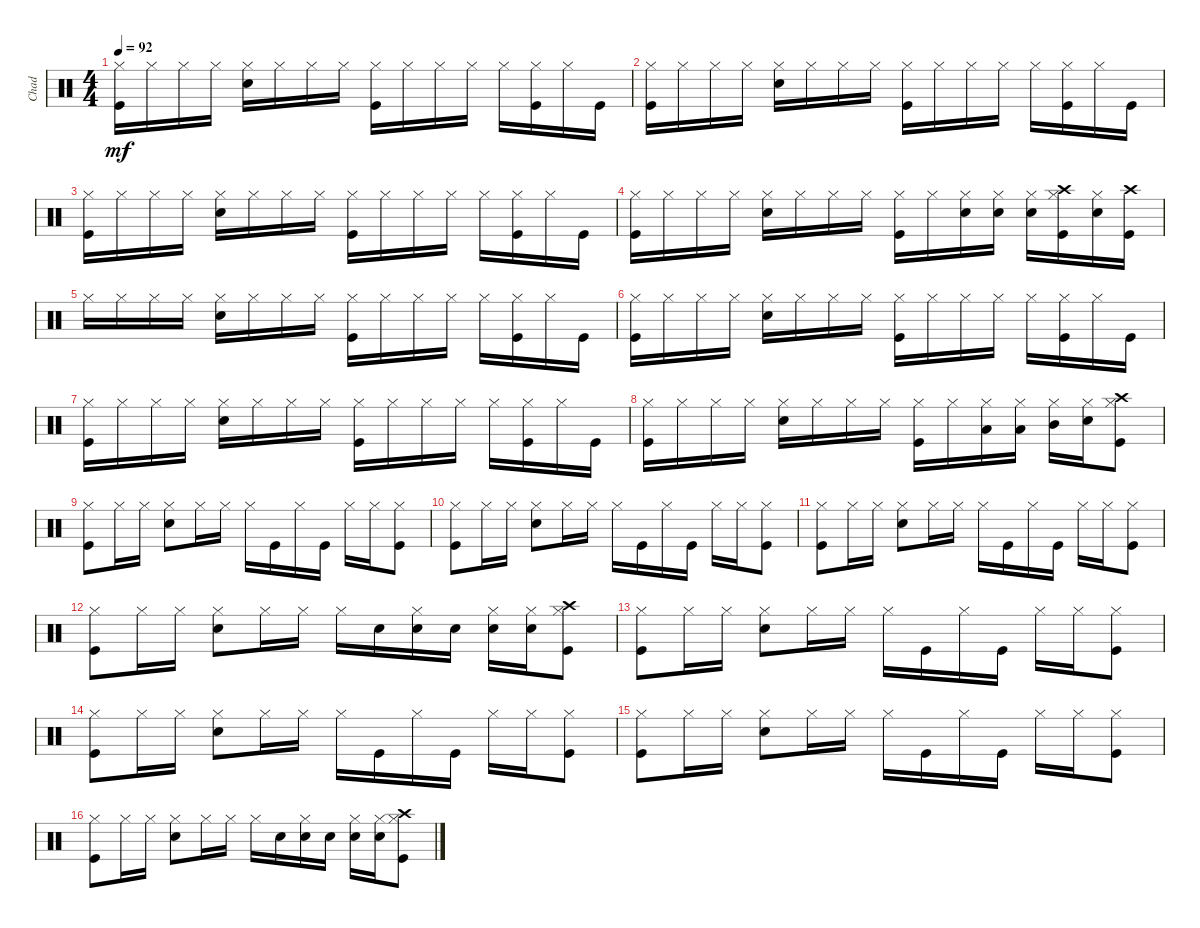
\track ("Chad" "Chad") {instrument percussion}
\staff {score}
\articulation defaults
\ts (4 4)
\tempo 92
\clef neutral
\ks c
("Kick (hit)" "Hi-Hat (closed)").16{dy mf} "Hi-Hat (closed)".16 "Hi-Hat (closed)".16 "Hi-Hat (closed)".16 ("Snare (hit) 2" "Hi-Hat (closed)").16 "Hi-Hat (closed)".16 "Hi-Hat (closed)".16 "Hi-Hat (closed)".16 ("Kick (hit)" "Hi-Hat (closed)").16 "Hi-Hat (closed)".16 "Hi-Hat (closed)".16 "Hi-Hat (closed)".16 "Hi-Hat (closed)".16 ("Kick (hit)" "Hi-Hat (closed)").16 "Hi-Hat (closed)".16 "Kick (hit)".16 |
("Kick (hit)" "Hi-Hat (closed)").16 "Hi-Hat (closed)".16 "Hi-Hat (closed)".16 "Hi-Hat (closed)".16 ("Snare (hit) 2" "Hi-Hat (closed)").16 "Hi-Hat (closed)".16 "Hi-Hat (closed)".16 "Hi-Hat (closed)".16 ("Kick (hit)" "Hi-Hat (closed)").16 "Hi-Hat (closed)".16 "Hi-Hat (closed)".16 "Hi-Hat (closed)".16 "Hi-Hat (closed)".16 ("Kick (hit)" "Hi-Hat (closed)").16 "Hi-Hat (closed)".16 "Kick (hit)".16 |
("Kick (hit)" "Hi-Hat (closed)").16 "Hi-Hat (closed)".16 "Hi-Hat (closed)".16 "Hi-Hat (closed)".16 ("Snare (hit) 2" "Hi-Hat (closed)").16 "Hi-Hat (closed)".16 "Hi-Hat (closed)".16 "Hi-Hat (closed)".16 ("Kick (hit)" "Hi-Hat (closed)").16 "Hi-Hat (closed)".16 "Hi-Hat (closed)".16 "Hi-Hat (closed)".16 "Hi-Hat (closed)".16 ("Kick (hit)" "Hi-Hat (closed)").16 "Hi-Hat (closed)".16 "Kick (hit)".16 |
("Kick (hit)" "Hi-Hat (closed)").16 "Hi-Hat (closed)".16 "Hi-Hat (closed)".16 "Hi-Hat (closed)".16 ("Snare (hit) 2" "Hi-Hat (closed)").16 "Hi-Hat (closed)".16 "Hi-Hat (closed)".16 "Hi-Hat (closed)".16 ("Kick (hit)" "Hi-Hat (closed)").16 "Hi-Hat (closed)".16 ("Hi-Hat (closed)" "Snare (hit) 2").16 ("Hi-Hat (closed)" "Snare (hit) 2").16 ("Hi-Hat (closed)" "Snare (hit) 2").16 ("Hi-Hat (closed)" "Kick (hit)" "Crash high (hit)").16 ("Hi-Hat (closed)" "Snare (hit) 2").16 ("Kick (hit)" "Crash high (hit)").16 |
"Hi-Hat (closed)".16 "Hi-Hat (closed)".16 "Hi-Hat (closed)".16 "Hi-Hat (closed)".16 ("Snare (hit) 2" "Hi-Hat (closed)").16 "Hi-Hat (closed)".16 "Hi-Hat (closed)".16 "Hi-Hat (closed)".16 ("Kick (hit)" "Hi-Hat (closed)").16 "Hi-Hat (closed)".16 "Hi-Hat (closed)".16 "Hi-Hat (closed)".16 "Hi-Hat (closed)".16 ("Kick (hit)" "Hi-Hat (closed)").16 "Hi-Hat (closed)".16 "Kick (hit)".16 |
("Kick (hit)" "Hi-Hat (closed)").16 "Hi-Hat (closed)".16 "Hi-Hat (closed)".16 "Hi-Hat (closed)".16 ("Snare (hit) 2" "Hi-Hat (closed)").16 "Hi-Hat (closed)".16 "Hi-Hat (closed)".16 "Hi-Hat (closed)".16 ("Kick (hit)" "Hi-Hat (closed)").16 "Hi-Hat (closed)".16 "Hi-Hat (closed)".16 "Hi-Hat (closed)".16 "Hi-Hat (closed)".16 ("Kick (hit)" "Hi-Hat (closed)").16 "Hi-Hat (closed)".16 "Kick (hit)".16 |
("Kick (hit)" "Hi-Hat (closed)").16 "Hi-Hat (closed)".16 "Hi-Hat (closed)".16 "Hi-Hat (closed)".16 ("Snare (hit) 2" "Hi-Hat (closed)").16 "Hi-Hat (closed)".16 "Hi-Hat (closed)".16 "Hi-Hat (closed)".16 ("Kick (hit)" "Hi-Hat (closed)").16 "Hi-Hat (closed)".16 "Hi-Hat (closed)".16 "Hi-Hat (closed)".16 "Hi-Hat (closed)".16 ("Kick (hit)" "Hi-Hat (closed)").16 "Hi-Hat (closed)".16 "Kick (hit)".16 |
("Kick (hit)" "Hi-Hat (closed)").16 "Hi-Hat (closed)".16 "Hi-Hat (closed)".16 "Hi-Hat (closed)".16 ("Snare (hit) 2" "Hi-Hat (closed)").16 "Hi-Hat (closed)".16 "Hi-Hat (closed)".16 "Hi-Hat (closed)".16 ("Kick (hit)" "Hi-Hat (closed)").16 "Hi-Hat (closed)".16 ("Hi-Hat (closed)" "Low Tom (hit)").16 ("Hi-Hat (closed)" "Low Tom (hit)").16 ("Hi-Hat (closed)" "Mid Tom (hit)").16 ("Hi-Hat (closed)" "Snare (hit) 2").16 ("Hi-Hat (closed)" "Kick (hit)" "Crash high (hit)").8 |
("Kick (hit)" "Hi-Hat (closed)").8 "Hi-Hat (closed)".16 "Hi-Hat (closed)".16 ("Snare (hit) 2" "Hi-Hat (closed)").8 "Hi-Hat (closed)".16 "Hi-Hat (closed)".16 "Hi-Hat (closed)".16 "Kick (hit)".16 "Hi-Hat (closed)".16 "Kick (hit)".16 "Hi-Hat (closed)".16 "Hi-Hat (closed)".16 ("Hi-Hat (closed)" "Kick (hit)").8 |
("Kick (hit)" "Hi-Hat (closed)").8 "Hi-Hat (closed)".16 "Hi-Hat (closed)".16 ("Snare (hit) 2" "Hi-Hat (closed)").8 "Hi-Hat (closed)".16 "Hi-Hat (closed)".16 "Hi-Hat (closed)".16 "Kick (hit)".16 "Hi-Hat (closed)".16 "Kick (hit)".16 "Hi-Hat (closed)".16 "Hi-Hat (closed)".16 ("Hi-Hat (closed)" "Kick (hit)").8 |
("Kick (hit)" "Hi-Hat (closed)").8 "Hi-Hat (closed)".16 "Hi-Hat (closed)".16 ("Snare (hit) 2" "Hi-Hat (closed)").8 "Hi-Hat (closed)".16 "Hi-Hat (closed)".16 "Hi-Hat (closed)".16 "Kick (hit)".16 "Hi-Hat (closed)".16 "Kick (hit)".16 "Hi-Hat (closed)".16 "Hi-Hat (closed)".16 ("Hi-Hat (closed)" "Kick (hit)").8 |
("Kick (hit)" "Hi-Hat (closed)").8 "Hi-Hat (closed)".16 "Hi-Hat (closed)".16 ("Snare (hit) 2" "Hi-Hat (closed)").8 "Hi-Hat (closed)".16 "Hi-Hat (closed)".16 "Hi-Hat (closed)".16 "Snare (hit) 2".16 ("Hi-Hat (closed)" "Snare (hit) 2").16 "Snare (hit) 2".16 ("Hi-Hat (closed)" "Snare (hit) 2").16 ("Hi-Hat (closed)" "Snare (hit) 2").16 ("Hi-Hat (closed)" "Kick (hit)" "Crash high (hit)").8 |
("Kick (hit)" "Hi-Hat (closed)").8 "Hi-Hat (closed)".16 "Hi-Hat (closed)".16 ("Snare (hit) 2" "Hi-Hat (closed)").8 "Hi-Hat (closed)".16 "Hi-Hat (closed)".16 "Hi-Hat (closed)".16 "Kick (hit)".16 "Hi-Hat (closed)".16 "Kick (hit)".16 "Hi-Hat (closed)".16 "Hi-Hat (closed)".16 ("Hi-Hat (closed)" "Kick (hit)").8 |
("Kick (hit)" "Hi-Hat (closed)").8 "Hi-Hat (closed)".16 "Hi-Hat (closed)".16 ("Snare (hit) 2" "Hi-Hat (closed)").8 "Hi-Hat (closed)".16 "Hi-Hat (closed)".16 "Hi-Hat (closed)".16 "Kick (hit)".16 "Hi-Hat (closed)".16 "Kick (hit)".16 "Hi-Hat (closed)".16 "Hi-Hat (closed)".16 ("Hi-Hat (closed)" "Kick (hit)").8 |
("Kick (hit)" "Hi-Hat (closed)").8 "Hi-Hat (closed)".16 "Hi-Hat (closed)".16 ("Snare (hit) 2" "Hi-Hat (closed)").8 "Hi-Hat (closed)".16 "Hi-Hat (closed)".16 "Hi-Hat (closed)".16 "Kick (hit)".16 "Hi-Hat (closed)".16 "Kick (hit)".16 "Hi-Hat (closed)".16 "Hi-Hat (closed)".16 ("Hi-Hat (closed)" "Kick (hit)").8 |
("Kick (hit)" "Hi-Hat (closed)").8 "Hi-Hat (closed)".16 "Hi-Hat (closed)".16 ("Snare (hit) 2" "Hi-Hat (closed)").8 "Hi-Hat (closed)".16 "Hi-Hat (closed)".16 "Hi-Hat (closed)".16 "Snare (hit) 2".16 ("Hi-Hat (closed)" "Snare (hit) 2").16 "Snare (hit) 2".16 ("Hi-Hat (closed)" "Snare (hit) 2").16 ("Hi-Hat (closed)" "Snare (hit) 2").16 ("Hi-Hat (closed)" "Kick (hit)" "Crash high (hit)").8
